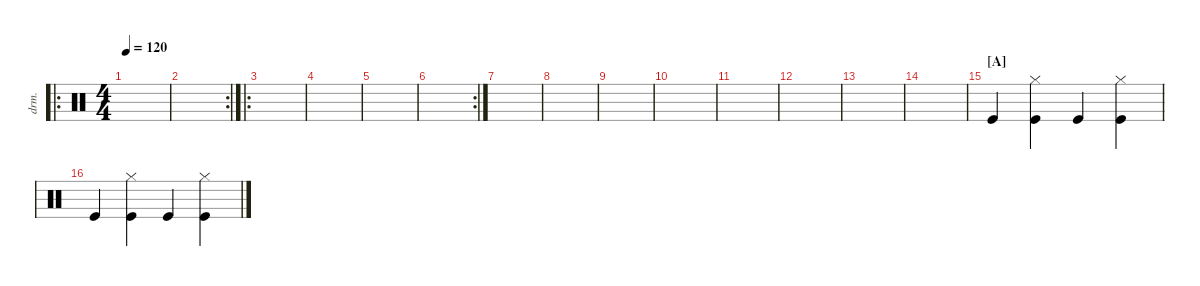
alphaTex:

\defaultSystemsLayout 4
\hideDynamics
\bracketExtendMode nobrackets
\chordDiagramsInScore
\track ("Drumkit" "drm.") {instrument percussion}
\staff {score}
\articulation defaults
\ro
\ts (4 4)
\tempo 120
\clef neutral
\ks c
|
\rc 2
|
\ro
|
|
|
\rc 2
|
|
|
|
|
|
|
|
|
\section ("A" "")
"Kick (hit)".4{beam Up} ("Kick (hit)" "Hi-Hat (closed)").4{beam Down} "Kick (hit)".4{beam Up} ("Kick (hit)" "Hi-Hat (closed)").4{beam Down} |
"Kick (hit)".4{beam Up} ("Kick (hit)" "Hi-Hat (closed)").4{beam Down} "Kick (hit)".4{beam Up} ("Kick (hit)" "Hi-Hat (closed)").4{beam Down}
